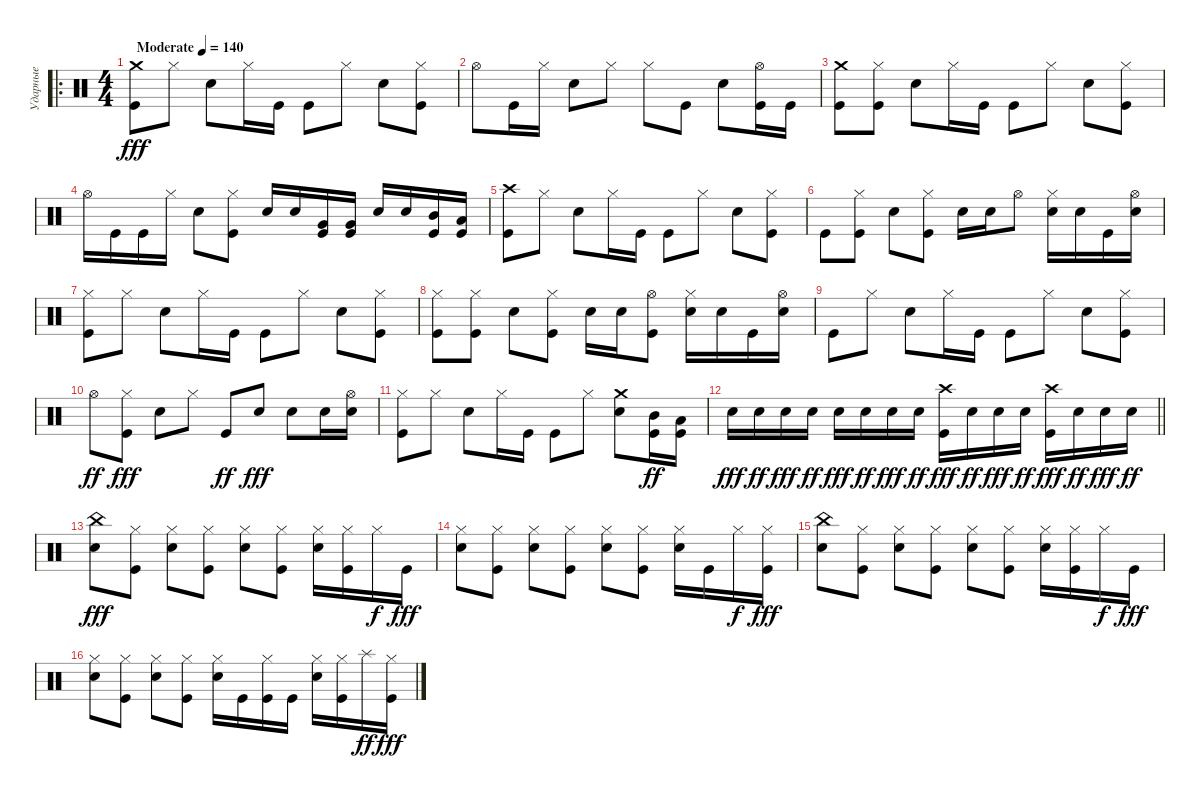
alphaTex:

\track ("Ударные" "Ударные") {instrument percussion}
\staff {score}
\articulation defaults
\ro
\ts (4 4)
\tempo (140 "Moderate")
\clef neutral
\ks c
("Crash medium (hit)" "Kick (hit)").8{dy fff} "Hi-Hat (closed)".8 "Electric Snare (hit)".8 "Hi-Hat (closed)".16 "Kick (hit)".16 "Kick (hit)".8 "Hi-Hat (closed)".8 "Electric Snare (hit)".8 ("Hi-Hat (closed)" "Kick (hit)").8 |
"Hi-Hat (open)".8 "Kick (hit)".16 "Hi-Hat (closed)".16 "Electric Snare (hit)".8 "Hi-Hat (closed)".8 "Hi-Hat (closed)".8 "Kick (hit)".8 "Electric Snare (hit)".8 ("Hi-Hat (open)" "Kick (hit)").16 "Kick (hit)".16 |
("Crash medium (hit)" "Kick (hit)").8 ("Hi-Hat (closed)" "Kick (hit)").8 "Electric Snare (hit)".8 "Hi-Hat (closed)".16 "Kick (hit)".16 "Kick (hit)".8 "Hi-Hat (closed)".8 "Electric Snare (hit)".8 ("Hi-Hat (closed)" "Kick (hit)").8 |
"Hi-Hat (open)".16 "Kick (hit)".16 "Kick (hit)".16 "Hi-Hat (closed)".16 "Electric Snare (hit)".8 ("Hi-Hat (closed)" "Kick (hit)").8 "Electric Snare (hit)".16 "Electric Snare (hit)".16 ("Very Low Tom (hit)" "Kick (hit)").16 ("Very Low Tom (hit)" "Kick (hit)").16 "Electric Snare (hit)".16 "Electric Snare (hit)".16 ("Mid Tom (hit)" "Kick (hit)").16 ("Low Tom (hit)" "Kick (hit)").16 |
("Crash high (hit)" "Kick (hit)").8 "Hi-Hat (closed)".8 "Electric Snare (hit)".8 "Hi-Hat (closed)".16 "Kick (hit)".16 "Kick (hit)".8 "Hi-Hat (closed)".8 "Electric Snare (hit)".8 ("Hi-Hat (closed)" "Kick (hit)").8 |
"Kick (hit)".8 ("Hi-Hat (closed)" "Kick (hit)").8 "Electric Snare (hit)".8 ("Hi-Hat (closed)" "Kick (hit)").8 "Electric Snare (hit)".16 "Electric Snare (hit)".16 "Hi-Hat (open)".8 ("Hi-Hat (closed)" "Electric Snare (hit)").16 "Electric Snare (hit)".16 "Kick (hit)".16 ("Hi-Hat (open)" "Electric Snare (hit)").16 |
("Hi-Hat (closed)" "Kick (hit)").8 "Hi-Hat (closed)".8 "Electric Snare (hit)".8 "Hi-Hat (closed)".16 "Kick (hit)".16 "Kick (hit)".8 "Hi-Hat (closed)".8 "Electric Snare (hit)".8 ("Hi-Hat (closed)" "Kick (hit)").8 |
("Hi-Hat (closed)" "Kick (hit)").8 ("Hi-Hat (closed)" "Kick (hit)").8 "Electric Snare (hit)".8 ("Hi-Hat (closed)" "Kick (hit)").8 "Electric Snare (hit)".16 "Electric Snare (hit)".16 ("Hi-Hat (open)" "Kick (hit)").8 ("Hi-Hat (closed)" "Electric Snare (hit)").16 "Electric Snare (hit)".16 "Kick (hit)".16 ("Hi-Hat (open)" "Electric Snare (hit)").16 |
"Kick (hit)".8 "Hi-Hat (closed)".8 "Electric Snare (hit)".8 "Hi-Hat (closed)".16 "Kick (hit)".16 "Kick (hit)".8 "Hi-Hat (closed)".8 "Electric Snare (hit)".8 ("Hi-Hat (closed)" "Kick (hit)").8 |
"Hi-Hat (open)".8{dy ff} ("Hi-Hat (closed)" "Kick (hit)").8{dy fff} "Electric Snare (hit)".8 "Hi-Hat (closed)".8 "Kick (hit)".8{dy ff} "Electric Snare (hit)".8{dy fff} "Electric Snare (hit)".8 "Electric Snare (hit)".16 ("Hi-Hat (open)" "Electric Snare (hit)").16 |
("Hi-Hat (closed)" "Kick (hit)").8 "Hi-Hat (closed)".8 "Electric Snare (hit)".8 "Hi-Hat (closed)".16 "Kick (hit)".16 "Kick (hit)".8 "Hi-Hat (closed)".8 ("Crash medium (hit)" "Electric Snare (hit)").8 ("Mid Tom (hit)" "Kick (hit)").16{dy ff} ("Low Tom (hit)" "Kick (hit)").16 |
\barLineRight lightlight "Electric Snare (hit)".16{dy fff} "Electric Snare (hit)".16{dy ff} "Electric Snare (hit)".16{dy fff} "Electric Snare (hit)".16{dy ff} "Electric Snare (hit)".16{dy fff} "Electric Snare (hit)".16{dy ff} "Electric Snare (hit)".16{dy fff} "Electric Snare (hit)".16{dy ff}
("Crash high (hit)" "Kick (hit)").16{dy fff} "Electric Snare (hit)".16{dy ff} "Electric Snare (hit)".16{dy fff} "Electric Snare (hit)".16{dy ff} ("Crash high (hit)" "Kick (hit)").16{dy fff} "Electric Snare (hit)".16{dy ff} "Electric Snare (hit)".16{dy fff} "Electric Snare (hit)".16{dy ff} |
("China (hit)" "Electric Snare (hit)").8{dy fff} ("Hi-Hat (closed)" "Kick (hit)").8 ("Hi-Hat (closed)" "Electric Snare (hit)").8 ("Hi-Hat (closed)" "Kick (hit)").8 ("Hi-Hat (closed)" "Electric Snare (hit)").8 ("Hi-Hat (closed)" "Kick (hit)").8 ("Hi-Hat (closed)" "Electric Snare (hit)").16 ("Hi-Hat (closed)" "Kick (hit)").16 "Hi-Hat (closed)".16{dy f} "Kick (hit)".16{dy fff} |
("Hi-Hat (closed)" "Electric Snare (hit)").8 ("Hi-Hat (closed)" "Kick (hit)").8 ("Hi-Hat (closed)" "Electric Snare (hit)").8 ("Hi-Hat (closed)" "Kick (hit)").8 ("Hi-Hat (closed)" "Electric Snare (hit)").8 ("Hi-Hat (closed)" "Kick (hit)").8 ("Hi-Hat (closed)" "Electric Snare (hit)").16 "Kick (hit)".16 "Hi-Hat (closed)".16{dy f} ("Hi-Hat (closed)" "Kick (hit)").16{dy fff} |
("China (hit)" "Electric Snare (hit)").8 ("Hi-Hat (closed)" "Kick (hit)").8 ("Hi-Hat (closed)" "Electric Snare (hit)").8 ("Hi-Hat (closed)" "Kick (hit)").8 ("Hi-Hat (closed)" "Electric Snare (hit)").8 ("Hi-Hat (closed)" "Kick (hit)").8 ("Hi-Hat (closed)" "Electric Snare (hit)").16 ("Hi-Hat (closed)" "Kick (hit)").16 "Hi-Hat (closed)".16{dy f} "Kick (hit)".16{dy fff} |
("Hi-Hat (closed)" "Electric Snare (hit)").8 ("Hi-Hat (closed)" "Kick (hit)").8 ("Hi-Hat (closed)" "Electric Snare (hit)").8 ("Hi-Hat (closed)" "Kick (hit)").8 ("Hi-Hat (closed)" "Electric Snare (hit)").16 "Kick (hit)".16 ("Hi-Hat (closed)" "Kick (hit)").16 "Kick (hit)".16 ("Hi-Hat (closed)" "Electric Snare (hit)").16 ("Hi-Hat (closed)" "Kick (hit)").16 "Splash (hit)".16{dy ff} ("Hi-Hat (closed)" "Kick (hit)").16{dy fff}
